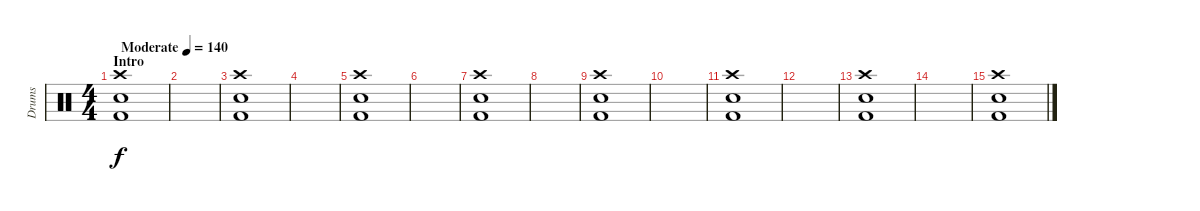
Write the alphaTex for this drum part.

\track ("Drums" "Drums") {instrument percussion}
\staff {score}
\articulation defaults
\ts (4 4)
\section ("" "Intro")
\tempo (140 "Moderate")
\clef neutral
\ks c
("Crash high (hit)" "Snare (hit) 2" "Kick (hit) 2").1{dy f} |
|
("Crash high (hit)" "Snare (hit) 2" "Kick (hit) 2").1 |
|
("Crash high (hit)" "Snare (hit) 2" "Kick (hit) 2").1 |
|
("Crash high (hit)" "Snare (hit) 2" "Kick (hit) 2").1 |
|
("Crash high (hit)" "Snare (hit) 2" "Kick (hit) 2").1 |
|
("Crash high (hit)" "Snare (hit) 2" "Kick (hit) 2").1 |
|
("Crash high (hit)" "Snare (hit) 2" "Kick (hit) 2").1 |
|
("Crash high (hit)" "Snare (hit) 2" "Kick (hit) 2").1
